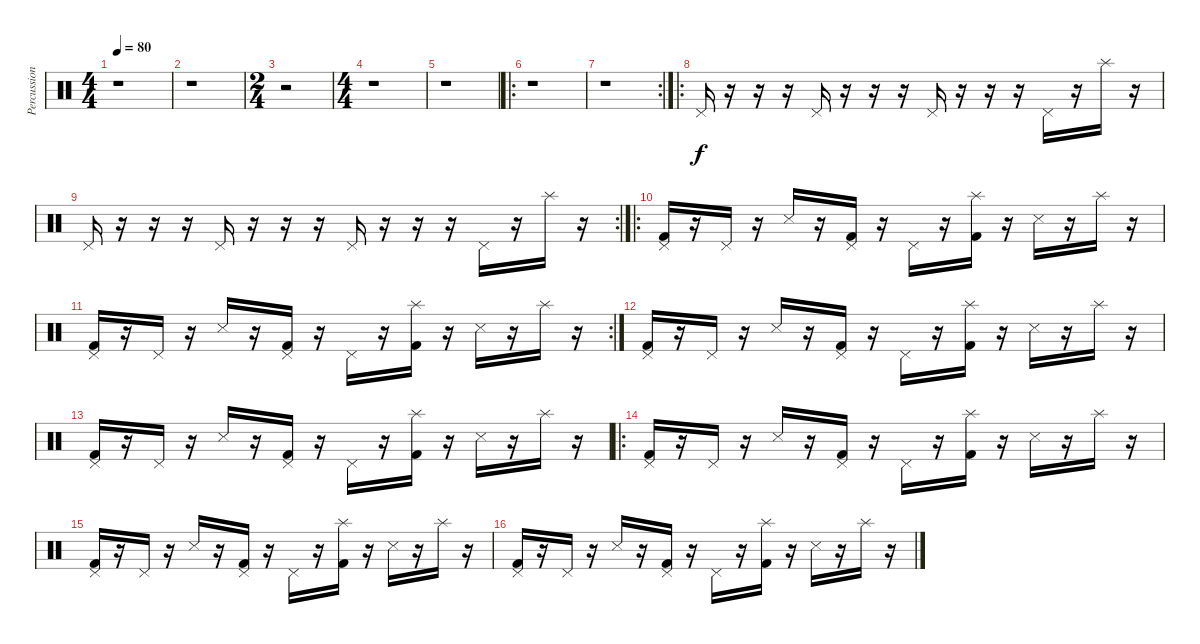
\track ("Percussion" "Percussion") {instrument percussion}
\staff {score}
\articulation defaults
\ts (4 4)
\tempo 80
\clef neutral
\ks c
r.1{dy f} |
r.1 |
\ts (2 4)
r.2 |
\ts (4 4)
r.1 |
r.1 |
\ro
r.1 |
\rc 2
r.1 |
\ro "Pedal Hi-Hat (hit)".16{volume 10}
r.16 r.16 r.16 "Pedal Hi-Hat (hit)".16 r.16 r.16 r.16 "Pedal Hi-Hat (hit)".16 r.16 r.16 r.16 "Pedal Hi-Hat (hit)".16 r.16 "Splash (hit)".16 r.16 |
\rc 2 "Pedal Hi-Hat (hit)".16
r.16 r.16 r.16 "Pedal Hi-Hat (hit)".16 r.16 r.16 r.16 "Pedal Hi-Hat (hit)".16 r.16 r.16 r.16 "Pedal Hi-Hat (hit)".16 r.16 "Splash (hit)".16 r.16 |
\ro
("Pedal Hi-Hat (hit)" "Kick (hit) 2").16{volume 14} r.16 "Pedal Hi-Hat (hit)".16 r.16 "Snare (side stick) 3".16 r.16 ("Pedal Hi-Hat (hit)" "Kick (hit) 2").16 r.16 "Pedal Hi-Hat (hit)".16 r.16 ("Splash (hit)" "Kick (hit) 2").16 r.16 "Snare (side stick) 3".16 r.16 "Splash (hit)".16 r.16 |
\rc 2
("Pedal Hi-Hat (hit)" "Kick (hit) 2").16 r.16 "Pedal Hi-Hat (hit)".16 r.16 "Snare (side stick) 3".16 r.16 ("Pedal Hi-Hat (hit)" "Kick (hit) 2").16 r.16 "Pedal Hi-Hat (hit)".16 r.16 ("Splash (hit)" "Kick (hit) 2").16 r.16 "Snare (side stick) 3".16 r.16 "Splash (hit)".16 r.16 |
("Pedal Hi-Hat (hit)" "Kick (hit) 2").16 r.16 "Pedal Hi-Hat (hit)".16 r.16 "Snare (side stick) 3".16 r.16 ("Pedal Hi-Hat (hit)" "Kick (hit) 2").16 r.16 "Pedal Hi-Hat (hit)".16 r.16 ("Splash (hit)" "Kick (hit) 2").16 r.16 "Snare (side stick) 3".16 r.16 "Splash (hit)".16 r.16 |
("Pedal Hi-Hat (hit)" "Kick (hit) 2").16 r.16 "Pedal Hi-Hat (hit)".16 r.16 "Snare (side stick) 3".16 r.16 ("Pedal Hi-Hat (hit)" "Kick (hit) 2").16 r.16 "Pedal Hi-Hat (hit)".16 r.16 ("Splash (hit)" "Kick (hit) 2").16 r.16 "Snare (side stick) 3".16 r.16 "Splash (hit)".16 r.16 |
\ro
("Pedal Hi-Hat (hit)" "Kick (hit) 2").16 r.16 "Pedal Hi-Hat (hit)".16 r.16 "Snare (side stick) 3".16 r.16 ("Pedal Hi-Hat (hit)" "Kick (hit) 2").16 r.16 "Pedal Hi-Hat (hit)".16 r.16 ("Splash (hit)" "Kick (hit) 2").16 r.16 "Snare (side stick) 3".16 r.16 "Splash (hit)".16 r.16 |
("Pedal Hi-Hat (hit)" "Kick (hit) 2").16 r.16 "Pedal Hi-Hat (hit)".16 r.16 "Snare (side stick) 3".16 r.16 ("Pedal Hi-Hat (hit)" "Kick (hit) 2").16 r.16 "Pedal Hi-Hat (hit)".16 r.16 ("Splash (hit)" "Kick (hit) 2").16 r.16 "Snare (side stick) 3".16 r.16 "Splash (hit)".16 r.16 |
("Pedal Hi-Hat (hit)" "Kick (hit) 2").16 r.16 "Pedal Hi-Hat (hit)".16 r.16 "Snare (side stick) 3".16 r.16 ("Pedal Hi-Hat (hit)" "Kick (hit) 2").16 r.16 "Pedal Hi-Hat (hit)".16 r.16 ("Splash (hit)" "Kick (hit) 2").16 r.16 "Snare (side stick) 3".16 r.16 "Splash (hit)".16 r.16
